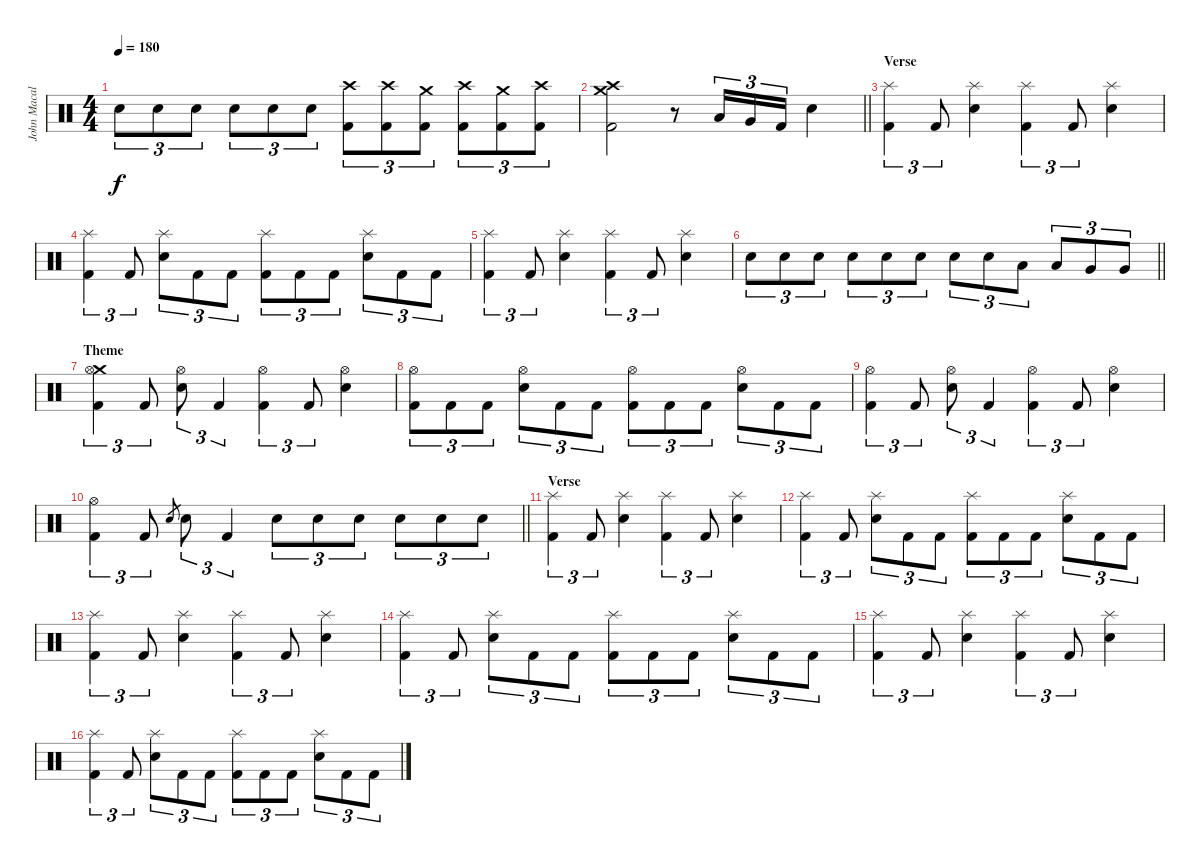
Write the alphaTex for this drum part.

\track ("John Macaluso" "John Macal") {instrument percussion}
\staff {score}
\articulation defaults
\ts (4 4)
\tempo 180
\clef neutral
\ks c "Snare (hit) 2".8{tu (3 2) dy f} "Snare (hit) 2".8{tu (3 2)} "Snare (hit) 2".8{tu (3 2)} "Snare (hit) 2".8{tu (3 2)} "Snare (hit) 2".8{tu (3 2)} "Snare (hit) 2".8{tu (3 2)}
("Crash high (hit)" "Kick (hit) 2").8{tu (3 2)} ("Crash high (hit)" "Kick (hit) 2").8{tu (3 2)} ("Crash medium (hit)" "Kick (hit) 2").8{tu (3 2)} ("Crash high (hit)" "Kick (hit) 2").8{tu (3 2)} ("Crash medium (hit)" "Kick (hit) 2").8{tu (3 2)} ("Crash high (hit)" "Kick (hit) 2").8{tu (3 2)} |
\barLineRight lightlight
("Crash medium (hit)" "Crash high (hit)" "Kick (hit) 2").2 r.8 "Low Tom (hit)".16{tu (3 2)} "Very Low Tom (hit)".16{tu (3 2)} "Kick (hit) 2".16{tu (3 2)} "Snare (hit) 2".4 |
\section ("" "Verse")
("Splash (hit)" "Kick (hit) 2").4{tu (3 2)} "Kick (hit) 2".8{tu (3 2)} ("Splash (hit)" "Snare (hit) 2").4 ("Splash (hit)" "Kick (hit) 2").4{tu (3 2)} "Kick (hit) 2".8{tu (3 2)} ("Splash (hit)" "Snare (hit) 2").4 |
("Splash (hit)" "Kick (hit) 2").4{tu (3 2)} "Kick (hit) 2".8{tu (3 2)} ("Splash (hit)" "Snare (hit) 2").8{tu (3 2)} "Kick (hit) 2".8{tu (3 2)} "Kick (hit) 2".8{tu (3 2)} ("Splash (hit)" "Kick (hit) 2").8{tu (3 2)} "Kick (hit) 2".8{tu (3 2)} "Kick (hit) 2".8{tu (3 2)} ("Splash (hit)" "Snare (hit) 2").8{tu (3 2)} "Kick (hit) 2".8{tu (3 2)} "Kick (hit) 2".8{tu (3 2)} |
("Splash (hit)" "Kick (hit) 2").4{tu (3 2)} "Kick (hit) 2".8{tu (3 2)} ("Splash (hit)" "Snare (hit) 2").4 ("Splash (hit)" "Kick (hit) 2").4{tu (3 2)} "Kick (hit) 2".8{tu (3 2)} ("Splash (hit)" "Snare (hit) 2").4 |
\barLineRight lightlight "Snare (hit) 2".8{tu (3 2)} "Snare (hit) 2".8{tu (3 2)} "Snare (hit) 2".8{tu (3 2)} "Snare (hit) 2".8{tu (3 2)} "Snare (hit) 2".8{tu (3 2)} "Snare (hit) 2".8{tu (3 2)} "Snare (hit) 2".8{tu (3 2)} "Snare (hit) 2".8{tu (3 2)} "Low Tom (hit)".8{tu (3 2)} "Low Tom (hit)".8{tu (3 2)} "Very Low Tom (hit)".8{tu (3 2)} "Very Low Tom (hit)".8{tu (3 2)}
|
\section ("" "Theme")
("Crash medium (hit)" "Hi-Hat (open)" "Kick (hit) 2").4{tu (3 2)} "Kick (hit) 2".8{tu (3 2)} ("Hi-Hat (open)" "Snare (hit) 2").8{tu (3 2)} "Kick (hit) 2".4{tu (3 2)} ("Hi-Hat (open)" "Kick (hit) 2").4{tu (3 2)} "Kick (hit) 2".8{tu (3 2)} ("Hi-Hat (open)" "Snare (hit) 2").4 |
("Hi-Hat (open)" "Kick (hit) 2").8{tu (3 2)} "Kick (hit) 2".8{tu (3 2)} "Kick (hit) 2".8{tu (3 2)} ("Hi-Hat (open)" "Snare (hit) 2").8{tu (3 2)} "Kick (hit) 2".8{tu (3 2)} "Kick (hit) 2".8{tu (3 2)} ("Hi-Hat (open)" "Kick (hit) 2").8{tu (3 2)} "Kick (hit) 2".8{tu (3 2)} "Kick (hit) 2".8{tu (3 2)} ("Hi-Hat (open)" "Snare (hit) 2").8{tu (3 2)} "Kick (hit) 2".8{tu (3 2)} "Kick (hit) 2".8{tu (3 2)} |
("Hi-Hat (open)" "Kick (hit) 2").4{tu (3 2)} "Kick (hit) 2".8{tu (3 2)} ("Hi-Hat (open)" "Snare (hit) 2").8{tu (3 2)} "Kick (hit) 2".4{tu (3 2)} ("Hi-Hat (open)" "Kick (hit) 2").4{tu (3 2)} "Kick (hit) 2".8{tu (3 2)} ("Hi-Hat (open)" "Snare (hit) 2").4 |
\barLineRight lightlight
("Hi-Hat (open)" "Kick (hit) 2").4{tu (3 2)} "Kick (hit) 2".8{tu (3 2)} "Snare (hit) 2".8{gr} "Snare (hit) 2".8{tu (3 2)} "Kick (hit) 2".4{tu (3 2)} "Snare (hit) 2".8{tu (3 2)} "Snare (hit) 2".8{tu (3 2)} "Snare (hit) 2".8{tu (3 2)} "Snare (hit) 2".8{tu (3 2)} "Snare (hit) 2".8{tu (3 2)} "Snare (hit) 2".8{tu (3 2)} |
\section ("" "Verse")
("Splash (hit)" "Kick (hit) 2").4{tu (3 2)} "Kick (hit) 2".8{tu (3 2)} ("Splash (hit)" "Snare (hit) 2").4 ("Splash (hit)" "Kick (hit) 2").4{tu (3 2)} "Kick (hit) 2".8{tu (3 2)} ("Splash (hit)" "Snare (hit) 2").4 |
("Splash (hit)" "Kick (hit) 2").4{tu (3 2)} "Kick (hit) 2".8{tu (3 2)} ("Splash (hit)" "Snare (hit) 2").8{tu (3 2)} "Kick (hit) 2".8{tu (3 2)} "Kick (hit) 2".8{tu (3 2)} ("Splash (hit)" "Kick (hit) 2").8{tu (3 2)} "Kick (hit) 2".8{tu (3 2)} "Kick (hit) 2".8{tu (3 2)} ("Splash (hit)" "Snare (hit) 2").8{tu (3 2)} "Kick (hit) 2".8{tu (3 2)} "Kick (hit) 2".8{tu (3 2)} |
("Splash (hit)" "Kick (hit) 2").4{tu (3 2)} "Kick (hit) 2".8{tu (3 2)} ("Splash (hit)" "Snare (hit) 2").4 ("Splash (hit)" "Kick (hit) 2").4{tu (3 2)} "Kick (hit) 2".8{tu (3 2)} ("Splash (hit)" "Snare (hit) 2").4 |
("Splash (hit)" "Kick (hit) 2").4{tu (3 2)} "Kick (hit) 2".8{tu (3 2)} ("Splash (hit)" "Snare (hit) 2").8{tu (3 2)} "Kick (hit) 2".8{tu (3 2)} "Kick (hit) 2".8{tu (3 2)} ("Splash (hit)" "Kick (hit) 2").8{tu (3 2)} "Kick (hit) 2".8{tu (3 2)} "Kick (hit) 2".8{tu (3 2)} ("Splash (hit)" "Snare (hit) 2").8{tu (3 2)} "Kick (hit) 2".8{tu (3 2)} "Kick (hit) 2".8{tu (3 2)} |
("Splash (hit)" "Kick (hit) 2").4{tu (3 2)} "Kick (hit) 2".8{tu (3 2)} ("Splash (hit)" "Snare (hit) 2").4 ("Splash (hit)" "Kick (hit) 2").4{tu (3 2)} "Kick (hit) 2".8{tu (3 2)} ("Splash (hit)" "Snare (hit) 2").4 |
("Splash (hit)" "Kick (hit) 2").4{tu (3 2)} "Kick (hit) 2".8{tu (3 2)} ("Splash (hit)" "Snare (hit) 2").8{tu (3 2)} "Kick (hit) 2".8{tu (3 2)} "Kick (hit) 2".8{tu (3 2)} ("Splash (hit)" "Kick (hit) 2").8{tu (3 2)} "Kick (hit) 2".8{tu (3 2)} "Kick (hit) 2".8{tu (3 2)} ("Splash (hit)" "Snare (hit) 2").8{tu (3 2)} "Kick (hit) 2".8{tu (3 2)} "Kick (hit) 2".8{tu (3 2)}
